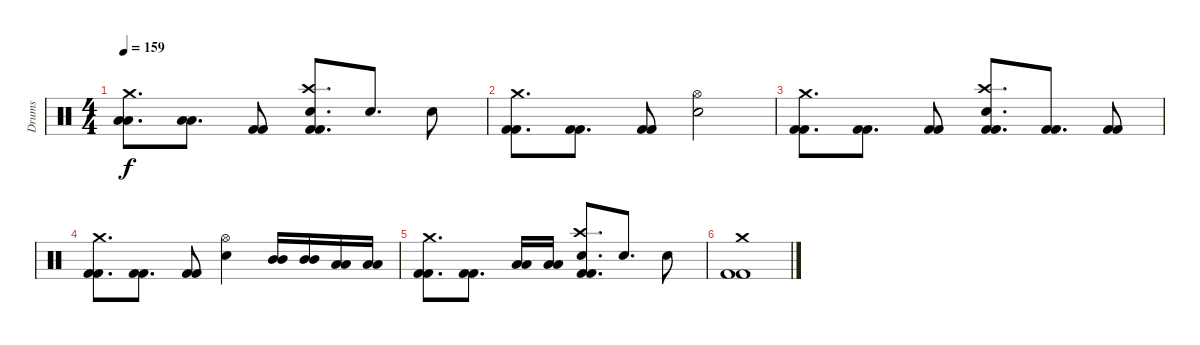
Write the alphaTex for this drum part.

\track ("Drums" "Drums") {instrument percussion}
\staff {score}
\articulation defaults
\ts (4 4)
\tempo 159
\clef neutral
\ks c
("Crash medium (hit)" "Low Tom (hit)" "Low Tom (hit)").8{d dy f} ("Low Tom (hit)" "Low Tom (hit)").8{d} ("Kick (hit) 2" "Kick (hit) 2").8 ("Crash high (hit)" "Electric Snare (hit)" "Kick (hit) 2" "Kick (hit) 2").8{d} "Electric Snare (hit)".8{d} "Electric Snare (hit)".8 |
("Crash medium (hit)" "Kick (hit) 2" "Kick (hit) 2").8{d} ("Kick (hit) 2" "Kick (hit) 2").8{d} ("Kick (hit) 2" "Kick (hit) 2").8 ("Hi-Hat (open)" "Electric Snare (hit)").2 |
("Crash medium (hit)" "Kick (hit) 2" "Kick (hit) 2").8{d} ("Kick (hit) 2" "Kick (hit) 2").8{d} ("Kick (hit) 2" "Kick (hit) 2").8 ("Crash high (hit)" "Electric Snare (hit)" "Kick (hit) 2" "Kick (hit) 2").8{d} ("Kick (hit) 2" "Kick (hit) 2").8{d} ("Kick (hit) 2" "Kick (hit) 2").8 |
("Crash medium (hit)" "Kick (hit) 2" "Kick (hit) 2").8{d} ("Kick (hit) 2" "Kick (hit) 2").8{d} ("Kick (hit) 2" "Kick (hit) 2").8 ("Hi-Hat (open)" "Electric Snare (hit)").4 ("Mid Tom (hit)" "Mid Tom (hit)").16 ("Mid Tom (hit)" "Mid Tom (hit)").16 ("Low Tom (hit)" "Low Tom (hit)").16 ("Low Tom (hit)" "Low Tom (hit)").16 |
("Crash medium (hit)" "Kick (hit) 2" "Kick (hit) 2").8{d} ("Kick (hit) 2" "Kick (hit) 2").8{d} ("Low Tom (hit)" "Low Tom (hit)").16 ("Low Tom (hit)" "Low Tom (hit)").16 ("Crash high (hit)" "Electric Snare (hit)" "Kick (hit) 2" "Kick (hit) 2").8{d} "Electric Snare (hit)".8{d} "Electric Snare (hit)".8 |
("Crash medium (hit)" "Kick (hit) 2" "Kick (hit) 2").1
